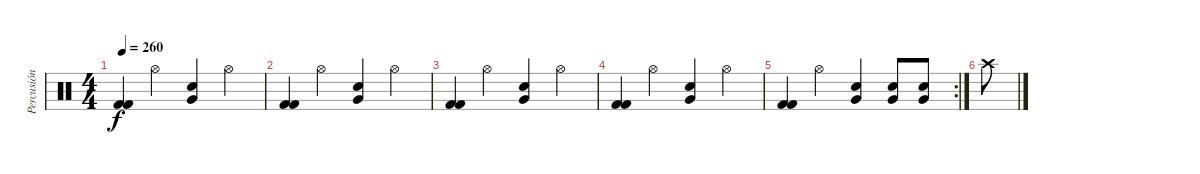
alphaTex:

\track ("Percusión" "Percusión") {instrument percussion}
\staff {score}
\articulation defaults
\ts (4 4)
\tempo 260
\clef neutral
\ks c
("Kick (hit) 2" "Kick (hit) 2").4{dy f} "Hi-Hat (open)".4 ("Very Low Tom (hit)" "Electric Snare (hit)").4 "Hi-Hat (open)".4 |
("Kick (hit) 2" "Kick (hit) 2").4 "Hi-Hat (open)".4 ("Very Low Tom (hit)" "Electric Snare (hit)").4 "Hi-Hat (open)".4 |
("Kick (hit) 2" "Kick (hit) 2").4 "Hi-Hat (open)".4 ("Very Low Tom (hit)" "Electric Snare (hit)").4 "Hi-Hat (open)".4 |
("Kick (hit) 2" "Kick (hit) 2").4 "Hi-Hat (open)".4 ("Very Low Tom (hit)" "Electric Snare (hit)").4 "Hi-Hat (open)".4 |
\rc 2
("Kick (hit) 2" "Kick (hit) 2").4 "Hi-Hat (open)".4 ("Very Low Tom (hit)" "Electric Snare (hit)").4 ("Very Low Tom (hit)" "Electric Snare (hit)").8 ("Very Low Tom (hit)" "Electric Snare (hit)").8 |
"Crash high (hit)".8
